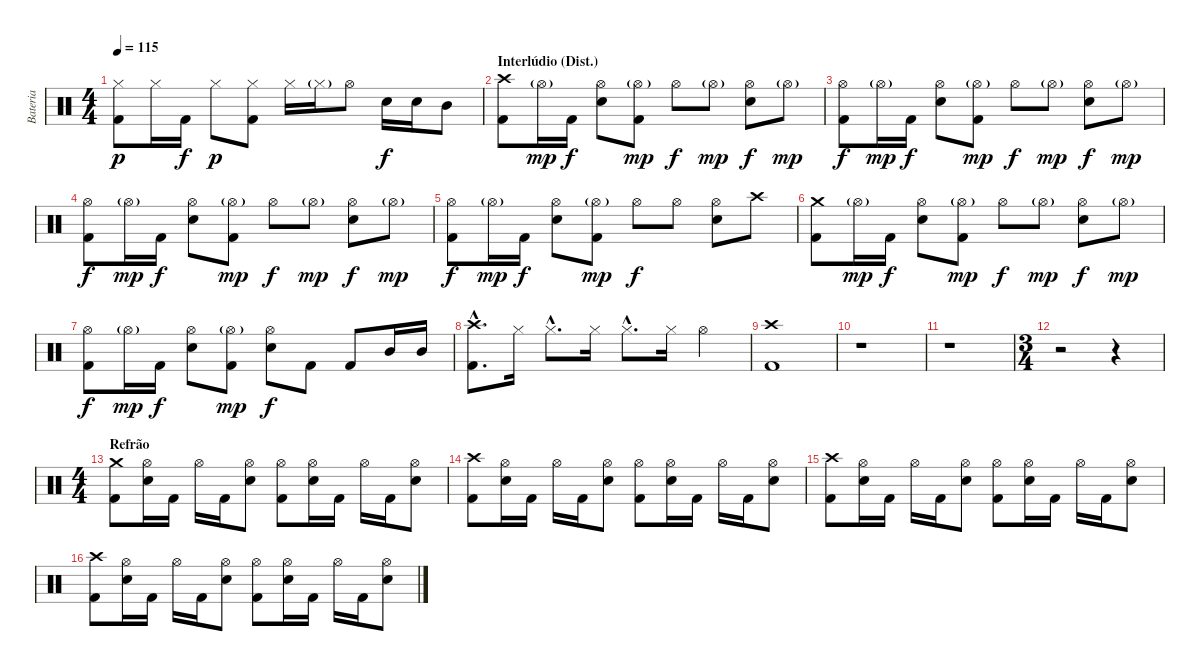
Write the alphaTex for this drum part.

\track ("Bateria" "Bateria") {instrument percussion}
\staff {score}
\articulation defaults
\ts (4 4)
\tempo 115
\clef neutral
\ks c
("Hi-Hat (closed)" "Kick (hit) 2").8{dy p} "Hi-Hat (closed)".16 "Kick (hit) 2".16{dy f} "Hi-Hat (closed)".8{dy p} ("Hi-Hat (closed)" "Kick (hit) 2").8 "Hi-Hat (closed)".16 "Hi-Hat (closed)"{g}.16 "Hi-Hat (open)".8 "Electric Snare (hit)".16{dy f} "Electric Snare (hit)".16 "Mid Tom (hit)".8 |
\section ("" "Interlúdio (Dist.)")
("Crash high (hit)" "Kick (hit) 2").8 "Hi-Hat (open)"{g}.16{dy mp} "Kick (hit) 2".16{dy f} ("Hi-Hat (open)" "Electric Snare (hit)").8 ("Hi-Hat (open)"{g} "Kick (hit) 2").8{dy mp} "Hi-Hat (open)".8{dy f} "Hi-Hat (open)"{g}.8{dy mp} ("Hi-Hat (open)" "Electric Snare (hit)").8{dy f} "Hi-Hat (open)"{g}.8{dy mp} |
("Hi-Hat (open)" "Kick (hit) 2").8{dy f} "Hi-Hat (open)"{g}.16{dy mp} "Kick (hit) 2".16{dy f} ("Hi-Hat (open)" "Electric Snare (hit)").8 ("Hi-Hat (open)"{g} "Kick (hit) 2").8{dy mp} "Hi-Hat (open)".8{dy f} "Hi-Hat (open)"{g}.8{dy mp} ("Hi-Hat (open)" "Electric Snare (hit)").8{dy f} "Hi-Hat (open)"{g}.8{dy mp} |
("Hi-Hat (open)" "Kick (hit) 2").8{dy f} "Hi-Hat (open)"{g}.16{dy mp} "Kick (hit) 2".16{dy f} ("Hi-Hat (open)" "Electric Snare (hit)").8 ("Hi-Hat (open)"{g} "Kick (hit) 2").8{dy mp} "Hi-Hat (open)".8{dy f} "Hi-Hat (open)"{g}.8{dy mp} ("Hi-Hat (open)" "Electric Snare (hit)").8{dy f} "Hi-Hat (open)"{g}.8{dy mp} |
("Hi-Hat (open)" "Kick (hit) 2").8{dy f} "Hi-Hat (open)"{g}.16{dy mp} "Kick (hit) 2".16{dy f} ("Hi-Hat (open)" "Electric Snare (hit)").8 ("Hi-Hat (open)"{g} "Kick (hit) 2").8{dy mp} "Hi-Hat (open)".8{dy f} "Hi-Hat (open)".8 ("Hi-Hat (open)" "Electric Snare (hit)").8 "Crash high (hit)".8 |
("Crash medium (hit)" "Kick (hit) 2").8 "Hi-Hat (open)"{g}.16{dy mp} "Kick (hit) 2".16{dy f} ("Hi-Hat (open)" "Electric Snare (hit)").8 ("Hi-Hat (open)"{g} "Kick (hit) 2").8{dy mp} "Hi-Hat (open)".8{dy f} "Hi-Hat (open)"{g}.8{dy mp} ("Hi-Hat (open)" "Electric Snare (hit)").8{dy f} "Hi-Hat (open)"{g}.8{dy mp} |
("Hi-Hat (open)" "Kick (hit) 2").8{dy f} "Hi-Hat (open)"{g}.16{dy mp} "Kick (hit) 2".16{dy f} ("Hi-Hat (open)" "Electric Snare (hit)").8 ("Hi-Hat (open)"{g} "Kick (hit) 2").8{dy mp} ("Hi-Hat (open)" "Electric Snare (hit)").8{dy f} "Kick (hit) 2".8 "Kick (hit) 2".8 "Mid Tom (hit)".16 "Mid Tom (hit)".16 |
("Crash high (hit)"{hac} "Kick (hit) 2"{hac}).8{d} "Hi-Hat (closed)".16 "Hi-Hat (closed)"{hac}.8{d} "Hi-Hat (closed)".16 "Hi-Hat (closed)"{hac}.8{d} "Hi-Hat (closed)".16 "Hi-Hat (open)".4 |
("Crash high (hit)" "Kick (hit) 2").1 |
r.1 |
r.1 |
\ts (3 4)
r.2 r.4 |
\ts (4 4)
\section ("" "Refrão")
("Crash medium (hit)" "Kick (hit) 2").8 ("Hi-Hat (open)" "Electric Snare (hit)").16 "Kick (hit) 2".16 "Hi-Hat (open)".16 "Kick (hit) 2".16 ("Hi-Hat (open)" "Electric Snare (hit)").8 ("Hi-Hat (open)" "Kick (hit) 2").8 ("Hi-Hat (open)" "Electric Snare (hit)").16 "Kick (hit) 2".16 "Hi-Hat (open)".16 "Kick (hit) 2".16 ("Hi-Hat (open)" "Electric Snare (hit)").8 |
("Crash high (hit)" "Kick (hit) 2").8 ("Hi-Hat (open)" "Electric Snare (hit)").16 "Kick (hit) 2".16 "Hi-Hat (open)".16 "Kick (hit) 2".16 ("Hi-Hat (open)" "Electric Snare (hit)").8 ("Hi-Hat (open)" "Kick (hit) 2").8 ("Hi-Hat (open)" "Electric Snare (hit)").16 "Kick (hit) 2".16 "Hi-Hat (open)".16 "Kick (hit) 2".16 ("Hi-Hat (open)" "Electric Snare (hit)").8 |
("Crash high (hit)" "Kick (hit) 2").8 ("Hi-Hat (open)" "Electric Snare (hit)").16 "Kick (hit) 2".16 "Hi-Hat (open)".16 "Kick (hit) 2".16 ("Hi-Hat (open)" "Electric Snare (hit)").8 ("Hi-Hat (open)" "Kick (hit) 2").8 ("Hi-Hat (open)" "Electric Snare (hit)").16 "Kick (hit) 2".16 "Hi-Hat (open)".16 "Kick (hit) 2".16 ("Hi-Hat (open)" "Electric Snare (hit)").8 |
("Crash high (hit)" "Kick (hit) 2").8 ("Hi-Hat (open)" "Electric Snare (hit)").16 "Kick (hit) 2".16 "Hi-Hat (open)".16 "Kick (hit) 2".16 ("Hi-Hat (open)" "Electric Snare (hit)").8 ("Hi-Hat (open)" "Kick (hit) 2").8 ("Hi-Hat (open)" "Electric Snare (hit)").16 "Kick (hit) 2".16 "Hi-Hat (open)".16 "Kick (hit) 2".16 ("Hi-Hat (open)" "Electric Snare (hit)").8
